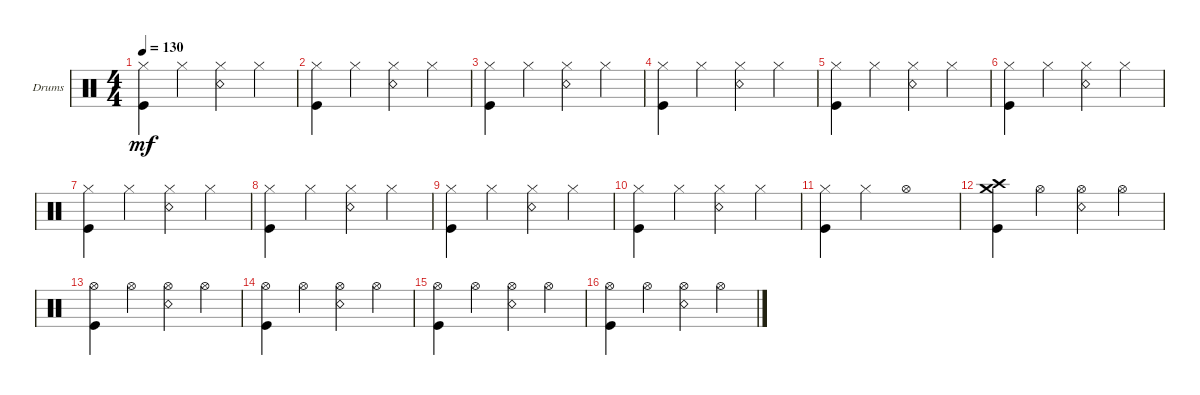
\defaultSystemsLayout 4
\bracketExtendMode groupsimilarinstruments
\firstSystemTrackNameOrientation horizontal
\otherSystemsTrackNameOrientation horizontal
\track ("Drumkit" "Drums") {instrument percussion}
\staff {score}
\articulation defaults
\ts (4 4)
\tempo 130
\clef neutral
\ks c
("Hi-Hat (closed)" "Kick (hit)").4{dy mf} "Hi-Hat (closed)".4 ("Hi-Hat (closed)" "Snare (rim shot)").4 "Hi-Hat (closed)".4 |
("Hi-Hat (closed)" "Kick (hit)").4 "Hi-Hat (closed)".4 ("Hi-Hat (closed)" "Snare (rim shot)").4 "Hi-Hat (closed)".4 |
("Hi-Hat (closed)" "Kick (hit)").4 "Hi-Hat (closed)".4 ("Hi-Hat (closed)" "Snare (rim shot)").4 "Hi-Hat (closed)".4 |
("Hi-Hat (closed)" "Kick (hit)").4 "Hi-Hat (closed)".4 ("Hi-Hat (closed)" "Snare (rim shot)").4 "Hi-Hat (closed)".4 |
("Hi-Hat (closed)" "Kick (hit)").4 "Hi-Hat (closed)".4 ("Hi-Hat (closed)" "Snare (rim shot)").4 "Hi-Hat (closed)".4 |
("Hi-Hat (closed)" "Kick (hit)").4 "Hi-Hat (closed)".4 ("Hi-Hat (closed)" "Snare (rim shot)").4 "Hi-Hat (closed)".4 |
("Hi-Hat (closed)" "Kick (hit)").4 "Hi-Hat (closed)".4 ("Hi-Hat (closed)" "Snare (rim shot)").4 "Hi-Hat (closed)".4 |
("Hi-Hat (closed)" "Kick (hit)").4 "Hi-Hat (closed)".4 ("Hi-Hat (closed)" "Snare (rim shot)").4 "Hi-Hat (closed)".4 |
("Hi-Hat (closed)" "Kick (hit)").4 "Hi-Hat (closed)".4 ("Hi-Hat (closed)" "Snare (rim shot)").4 "Hi-Hat (closed)".4 |
("Hi-Hat (closed)" "Kick (hit)").4 "Hi-Hat (closed)".4 ("Hi-Hat (closed)" "Snare (rim shot)").4 "Hi-Hat (closed)".4 |
("Hi-Hat (closed)" "Kick (hit)").4 "Hi-Hat (closed)".4 "Hi-Hat (open)".1 |
("Crash medium (hit)" "Crash high (hit)" "Kick (hit)").4 "Hi-Hat (open)".4 ("Hi-Hat (open)" "Snare (rim shot)").4 "Hi-Hat (open)".4 |
("Hi-Hat (open)" "Kick (hit)").4 "Hi-Hat (open)".4 ("Hi-Hat (open)" "Snare (rim shot)").4 "Hi-Hat (open)".4 |
("Hi-Hat (open)" "Kick (hit)").4 "Hi-Hat (open)".4 ("Hi-Hat (open)" "Snare (rim shot)").4 "Hi-Hat (open)".4 |
("Hi-Hat (open)" "Kick (hit)").4 "Hi-Hat (open)".4 ("Hi-Hat (open)" "Snare (rim shot)").4 "Hi-Hat (open)".4 |
("Hi-Hat (open)" "Kick (hit)").4 "Hi-Hat (open)".4 ("Hi-Hat (open)" "Snare (rim shot)").4 "Hi-Hat (open)".4
